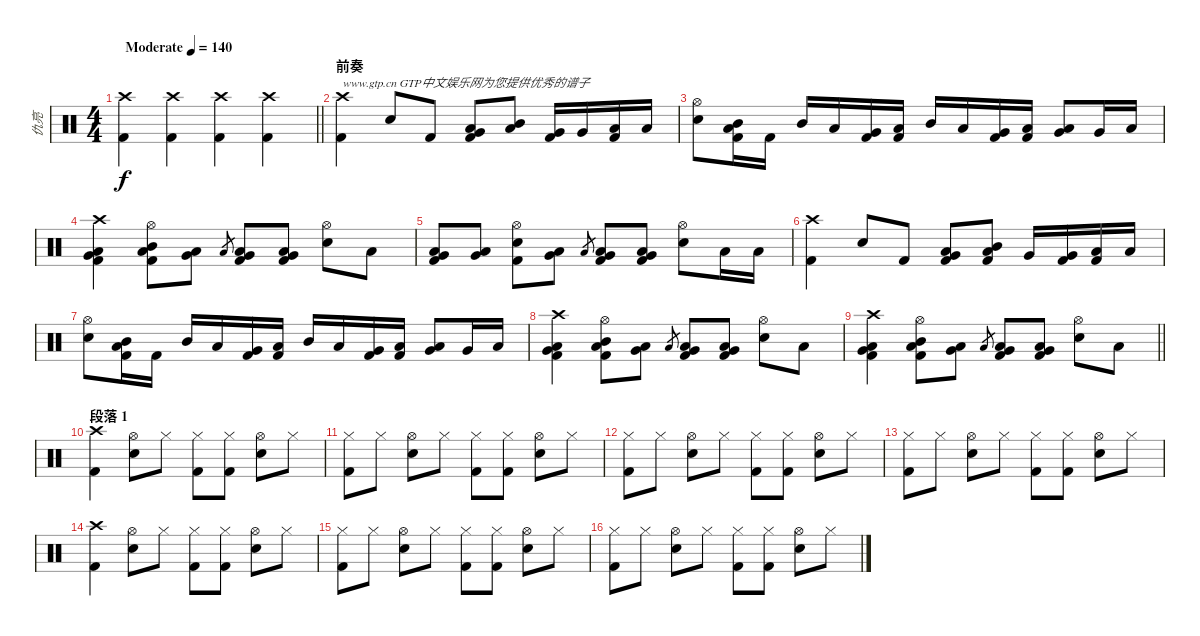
\track ("仇亮" "仇亮") {instrument percussion}
\staff {score}
\articulation defaults
\ts (4 4)
\tempo (140 "Moderate")
\clef neutral
\barLineRight lightlight
\ks c
("Crash high (hit)" "Kick (hit) 2").4{txt " " dy f} ("Crash high (hit)" "Kick (hit) 2").4{txt " "} ("Crash high (hit)" "Kick (hit) 2").4{txt " "} ("Crash high (hit)" "Kick (hit) 2").4{txt " "} |
\section ("" "前奏")
("Crash high (hit)" "Kick (hit) 2").4{txt "www.gtp.cn GTP中文娱乐网为您提供优秀的谱子"} "Electric Snare (hit)".8 "Kick (hit) 2".8 ("Low Tom (hit)" "Very Low Tom (hit)" "Kick (hit) 2").8 ("Mid Tom (hit)" "Low Tom (hit)").8 ("Very Low Tom (hit)" "Kick (hit) 2").16 "Very Low Tom (hit)".16 ("Low Floor Tom (hit)" "Kick (hit) 2").16 "Low Floor Tom (hit)".16 |
("Hi-Hat (open)" "Electric Snare (hit)").8 ("Mid Tom (hit)" "Low Tom (hit)" "Kick (hit) 2").16 "Kick (hit) 2".16 "Mid Tom (hit)".16 "Low Tom (hit)".16 ("Very Low Tom (hit)" "Kick (hit) 2").16 ("Low Floor Tom (hit)" "Kick (hit) 2").16 "Mid Tom (hit)".16 "Low Tom (hit)".16 ("Very Low Tom (hit)" "Kick (hit) 2").16 ("Low Floor Tom (hit)" "Kick (hit) 2").16 ("Low Tom (hit)" "Very Low Tom (hit)").8 "Very Low Tom (hit)".16 "Low Floor Tom (hit)".16 |
("Crash high (hit)" "Low Tom (hit)" "Very Low Tom (hit)" "Kick (hit) 2").4 ("Hi-Hat (open)" "Mid Tom (hit)" "Low Tom (hit)" "Kick (hit) 2").8 ("Low Tom (hit)" "Very Low Tom (hit)").8 "Low Tom (hit)".8{gr} ("Low Tom (hit)" "Very Low Tom (hit)" "Kick (hit) 2").8 ("Low Tom (hit)" "Very Low Tom (hit)" "Kick (hit) 2").8 ("Hi-Hat (open)" "Electric Snare (hit)").8 "Low Tom (hit)".8 |
("Low Tom (hit)" "Very Low Tom (hit)" "Kick (hit) 2").8 ("Low Tom (hit)" "Very Low Tom (hit)").8 ("Hi-Hat (open)" "Electric Snare (hit)" "Kick (hit) 2").8 ("Low Tom (hit)" "Very Low Tom (hit)").8 "Low Tom (hit)".8{gr} ("Low Tom (hit)" "Very Low Tom (hit)" "Kick (hit) 2").8 ("Low Tom (hit)" "Very Low Tom (hit)" "Kick (hit) 2").8 ("Hi-Hat (open)" "Electric Snare (hit)").8 "Low Tom (hit)".16 "Low Tom (hit)".16 |
("Crash high (hit)" "Kick (hit) 2").4 "Electric Snare (hit)".8 "Kick (hit) 2".8 ("Low Tom (hit)" "Very Low Tom (hit)" "Kick (hit) 2").8 ("Mid Tom (hit)" "Low Tom (hit)" "Kick (hit) 2").8 "Very Low Tom (hit)".16 ("Very Low Tom (hit)" "Kick (hit) 2").16 ("Low Floor Tom (hit)" "Kick (hit) 2").16 "Low Floor Tom (hit)".16 |
("Hi-Hat (open)" "Electric Snare (hit)").8 ("Mid Tom (hit)" "Low Tom (hit)" "Kick (hit) 2").16 "Kick (hit) 2".16 "Mid Tom (hit)".16 "Low Tom (hit)".16 ("Very Low Tom (hit)" "Kick (hit) 2").16 ("Low Floor Tom (hit)" "Kick (hit) 2").16 "Mid Tom (hit)".16 "Low Tom (hit)".16 ("Very Low Tom (hit)" "Kick (hit) 2").16 ("Low Floor Tom (hit)" "Kick (hit) 2").16 ("Low Tom (hit)" "Very Low Tom (hit)").8 "Very Low Tom (hit)".16 "Low Floor Tom (hit)".16 |
("Crash high (hit)" "Low Tom (hit)" "Very Low Tom (hit)" "Kick (hit) 2").4 ("Hi-Hat (open)" "Mid Tom (hit)" "Low Tom (hit)" "Kick (hit) 2").8 ("Low Tom (hit)" "Very Low Tom (hit)").8 "Low Tom (hit)".8{gr} ("Low Tom (hit)" "Very Low Tom (hit)" "Kick (hit) 2").8 ("Low Tom (hit)" "Very Low Tom (hit)" "Kick (hit) 2").8 ("Hi-Hat (open)" "Electric Snare (hit)").8 "Low Tom (hit)".8 |
\barLineRight lightlight
("Crash high (hit)" "Low Tom (hit)" "Very Low Tom (hit)" "Kick (hit) 2").4 ("Hi-Hat (open)" "Mid Tom (hit)" "Low Tom (hit)" "Kick (hit) 2").8 ("Low Tom (hit)" "Very Low Tom (hit)").8 "Low Tom (hit)".8{gr} ("Low Tom (hit)" "Very Low Tom (hit)" "Kick (hit) 2").8 ("Low Tom (hit)" "Very Low Tom (hit)" "Kick (hit) 2").8 ("Hi-Hat (open)" "Electric Snare (hit)").8 "Low Tom (hit)".8 |
\section ("" "段落 1")
("Crash high (hit)" "Kick (hit) 2").4 ("Hi-Hat (open)" "Electric Snare (hit)").8 "Hi-Hat (closed)".8 ("Hi-Hat (closed)" "Kick (hit) 2").8 ("Hi-Hat (closed)" "Kick (hit) 2").8 ("Hi-Hat (open)" "Electric Snare (hit)").8 "Hi-Hat (closed)".8 |
("Hi-Hat (closed)" "Kick (hit) 2").8 "Hi-Hat (closed)".8 ("Hi-Hat (open)" "Electric Snare (hit)").8 "Hi-Hat (closed)".8 ("Hi-Hat (closed)" "Kick (hit) 2").8 ("Hi-Hat (closed)" "Kick (hit) 2").8 ("Hi-Hat (open)" "Electric Snare (hit)").8 "Hi-Hat (closed)".8 |
("Hi-Hat (closed)" "Kick (hit) 2").8 "Hi-Hat (closed)".8 ("Hi-Hat (open)" "Electric Snare (hit)").8 "Hi-Hat (closed)".8 ("Hi-Hat (closed)" "Kick (hit) 2").8 ("Hi-Hat (closed)" "Kick (hit) 2").8 ("Hi-Hat (open)" "Electric Snare (hit)").8 "Hi-Hat (closed)".8 |
("Hi-Hat (closed)" "Kick (hit) 2").8 "Hi-Hat (closed)".8 ("Hi-Hat (open)" "Electric Snare (hit)").8 "Hi-Hat (closed)".8 ("Hi-Hat (closed)" "Kick (hit) 2").8 ("Hi-Hat (closed)" "Kick (hit) 2").8 ("Hi-Hat (open)" "Electric Snare (hit)").8 "Hi-Hat (closed)".8 |
("Crash high (hit)" "Kick (hit) 2").4 ("Hi-Hat (open)" "Electric Snare (hit)").8 "Hi-Hat (closed)".8 ("Hi-Hat (closed)" "Kick (hit) 2").8 ("Hi-Hat (closed)" "Kick (hit) 2").8 ("Hi-Hat (open)" "Electric Snare (hit)").8 "Hi-Hat (closed)".8 |
("Hi-Hat (closed)" "Kick (hit) 2").8 "Hi-Hat (closed)".8 ("Hi-Hat (open)" "Electric Snare (hit)").8 "Hi-Hat (closed)".8 ("Hi-Hat (closed)" "Kick (hit) 2").8 ("Hi-Hat (closed)" "Kick (hit) 2").8 ("Hi-Hat (open)" "Electric Snare (hit)").8 "Hi-Hat (closed)".8 |
("Hi-Hat (closed)" "Kick (hit) 2").8 "Hi-Hat (closed)".8 ("Hi-Hat (open)" "Electric Snare (hit)").8 "Hi-Hat (closed)".8 ("Hi-Hat (closed)" "Kick (hit) 2").8 ("Hi-Hat (closed)" "Kick (hit) 2").8 ("Hi-Hat (open)" "Electric Snare (hit)").8 "Hi-Hat (closed)".8
